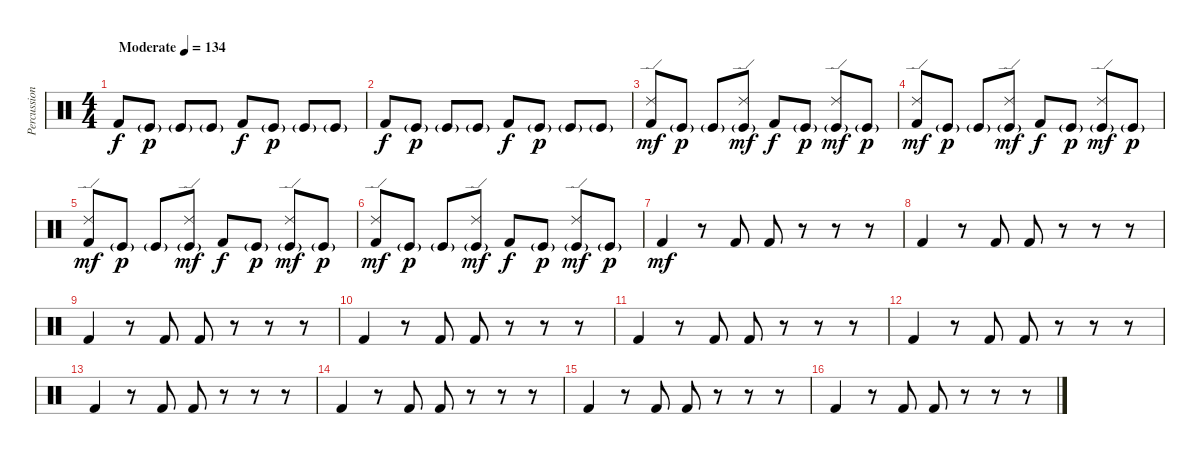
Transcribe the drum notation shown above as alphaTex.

\track ("Percussion" "Percussion") {instrument percussion}
\staff {score}
\articulation defaults
\ts (4 4)
\tempo (134 "Moderate")
\clef neutral
\ks c "Kick (hit) 2".8{dy f} "Kick (hit)"{g}.8{dy p} "Kick (hit)"{g}.8 "Kick (hit)"{g}.8 "Kick (hit) 2".8{dy f} "Kick (hit)"{g}.8{dy p} "Kick (hit)"{g}.8 "Kick (hit)"{g}.8
|
"Kick (hit) 2".8{dy f} "Kick (hit)"{g}.8{dy p} "Kick (hit)"{g}.8 "Kick (hit)"{g}.8 "Kick (hit) 2".8{dy f} "Kick (hit)"{g}.8{dy p} "Kick (hit)"{g}.8 "Kick (hit)"{g}.8 |
("Kick (hit) 2" "Ride (edge) 2").8{dy mf} "Kick (hit)"{g}.8{dy p} "Kick (hit)"{g}.8 ("Kick (hit)"{g} "Ride (edge) 2").8{dy mf} "Kick (hit) 2".8{dy f} "Kick (hit)"{g}.8{dy p} ("Kick (hit)"{g} "Ride (edge) 2").8{dy mf} "Kick (hit)"{g}.8{dy p} |
("Kick (hit) 2" "Ride (edge) 2").8{dy mf} "Kick (hit)"{g}.8{dy p} "Kick (hit)"{g}.8 ("Kick (hit)"{g} "Ride (edge) 2").8{dy mf} "Kick (hit) 2".8{dy f} "Kick (hit)"{g}.8{dy p} ("Kick (hit)"{g} "Ride (edge) 2").8{dy mf} "Kick (hit)"{g}.8{dy p} |
("Kick (hit) 2" "Ride (edge) 2").8{dy mf} "Kick (hit)"{g}.8{dy p} "Kick (hit)"{g}.8 ("Kick (hit)"{g} "Ride (edge) 2").8{dy mf} "Kick (hit) 2".8{dy f} "Kick (hit)"{g}.8{dy p} ("Kick (hit)"{g} "Ride (edge) 2").8{dy mf} "Kick (hit)"{g}.8{dy p} |
("Kick (hit) 2" "Ride (edge) 2").8{dy mf} "Kick (hit)"{g}.8{dy p} "Kick (hit)"{g}.8 ("Kick (hit)"{g} "Ride (edge) 2").8{dy mf} "Kick (hit) 2".8{dy f} "Kick (hit)"{g}.8{dy p} ("Kick (hit)"{g} "Ride (edge) 2").8{dy mf} "Kick (hit)"{g}.8{dy p} |
"Kick (hit) 2".4{dy mf} r.8 "Kick (hit) 2".8 "Kick (hit) 2".8 r.8 r.8 r.8 |
"Kick (hit) 2".4 r.8 "Kick (hit) 2".8 "Kick (hit) 2".8 r.8 r.8 r.8 |
"Kick (hit) 2".4 r.8 "Kick (hit) 2".8 "Kick (hit) 2".8 r.8 r.8 r.8 |
"Kick (hit) 2".4 r.8 "Kick (hit) 2".8 "Kick (hit) 2".8 r.8 r.8 r.8 |
"Kick (hit) 2".4 r.8 "Kick (hit) 2".8 "Kick (hit) 2".8 r.8 r.8 r.8 |
"Kick (hit) 2".4 r.8 "Kick (hit) 2".8 "Kick (hit) 2".8 r.8 r.8 r.8 |
"Kick (hit) 2".4 r.8 "Kick (hit) 2".8 "Kick (hit) 2".8 r.8 r.8 r.8 |
"Kick (hit) 2".4 r.8 "Kick (hit) 2".8 "Kick (hit) 2".8 r.8 r.8 r.8 |
"Kick (hit) 2".4 r.8 "Kick (hit) 2".8 "Kick (hit) 2".8 r.8 r.8 r.8 |
"Kick (hit) 2".4 r.8 "Kick (hit) 2".8 "Kick (hit) 2".8 r.8 r.8 r.8
